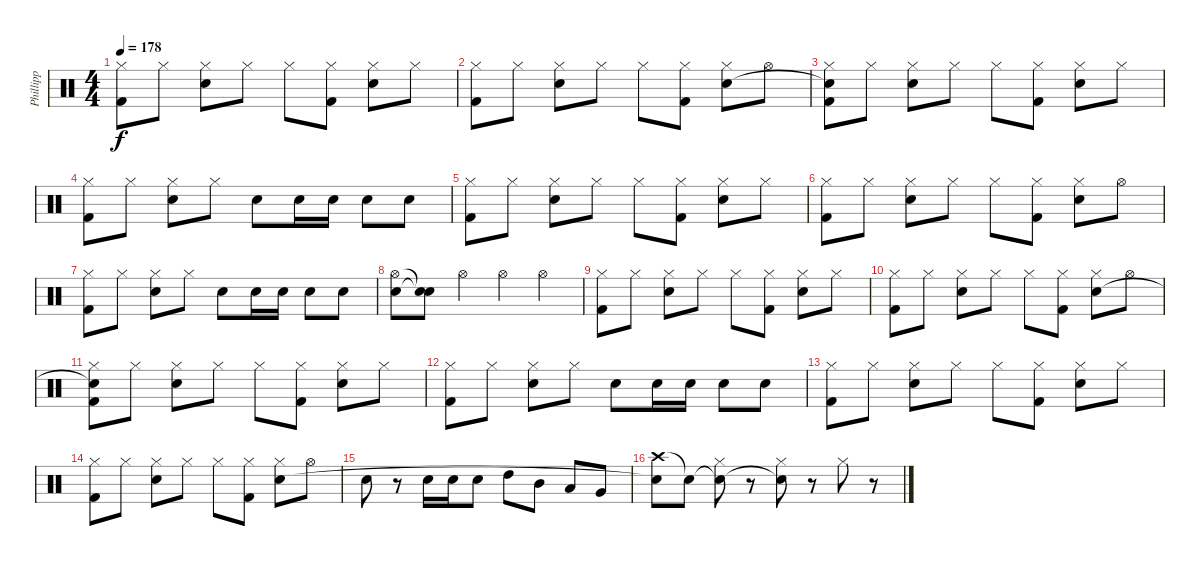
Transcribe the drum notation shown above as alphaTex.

\track ("Phillipp" "Phillipp") {instrument percussion}
\staff {score}
\articulation defaults
\ts (4 4)
\tempo 178
\clef neutral
\ks c
("Hi-Hat (closed)" "Kick (hit) 2").8{dy f} "Hi-Hat (closed)".8 ("Hi-Hat (closed)" "Electric Snare (hit)").8 "Hi-Hat (closed)".8 "Hi-Hat (closed)".8 ("Hi-Hat (closed)" "Kick (hit) 2").8 ("Hi-Hat (closed)" "Electric Snare (hit)").8 "Hi-Hat (closed)".8 |
("Hi-Hat (closed)" "Kick (hit) 2").8 "Hi-Hat (closed)".8 ("Hi-Hat (closed)" "Electric Snare (hit)").8 "Hi-Hat (closed)".8 "Hi-Hat (closed)".8 ("Hi-Hat (closed)" "Kick (hit) 2").8 ("Hi-Hat (closed)" "Electric Snare (hit)").8 "Hi-Hat (open)".8 |
("Hi-Hat (closed)" "Snare (hit)"{t} "Kick (hit) 2").8 "Hi-Hat (closed)".8 ("Hi-Hat (closed)" "Electric Snare (hit)").8 "Hi-Hat (closed)".8 "Hi-Hat (closed)".8 ("Hi-Hat (closed)" "Kick (hit) 2").8 ("Hi-Hat (closed)" "Electric Snare (hit)").8 "Hi-Hat (closed)".8 |
("Hi-Hat (closed)" "Kick (hit) 2").8 "Hi-Hat (closed)".8 ("Hi-Hat (closed)" "Electric Snare (hit)").8 "Hi-Hat (closed)".8 "Electric Snare (hit)".8 "Electric Snare (hit)".16 "Electric Snare (hit)".16 "Electric Snare (hit)".8 "Electric Snare (hit)".8 |
("Hi-Hat (closed)" "Kick (hit) 2").8 "Hi-Hat (closed)".8 ("Hi-Hat (closed)" "Electric Snare (hit)").8 "Hi-Hat (closed)".8 "Hi-Hat (closed)".8 ("Hi-Hat (closed)" "Kick (hit) 2").8 ("Hi-Hat (closed)" "Electric Snare (hit)").8 "Hi-Hat (closed)".8 |
("Hi-Hat (closed)" "Kick (hit) 2").8 "Hi-Hat (closed)".8 ("Hi-Hat (closed)" "Electric Snare (hit)").8 "Hi-Hat (closed)".8 "Hi-Hat (closed)".8 ("Hi-Hat (closed)" "Kick (hit) 2").8 ("Hi-Hat (closed)" "Electric Snare (hit)").8 "Hi-Hat (open)".8 |
("Hi-Hat (closed)" "Kick (hit) 2").8 "Hi-Hat (closed)".8 ("Hi-Hat (closed)" "Electric Snare (hit)").8 "Hi-Hat (closed)".8 "Electric Snare (hit)".8 "Electric Snare (hit)".16 "Electric Snare (hit)".16 "Electric Snare (hit)".8 "Electric Snare (hit)".8 |
("Electric Snare (hit)" "Hi-Hat (open)").8 ("Snare (hit)"{t} "Snare (hit)"{t}).8 "Hi-Hat (open)".4 "Hi-Hat (open)".4 "Hi-Hat (open)".4 |
("Hi-Hat (closed)" "Kick (hit) 2").8 "Hi-Hat (closed)".8 ("Hi-Hat (closed)" "Electric Snare (hit)").8 "Hi-Hat (closed)".8 "Hi-Hat (closed)".8 ("Hi-Hat (closed)" "Kick (hit) 2").8 ("Hi-Hat (closed)" "Electric Snare (hit)").8 "Hi-Hat (closed)".8 |
("Hi-Hat (closed)" "Kick (hit) 2").8 "Hi-Hat (closed)".8 ("Hi-Hat (closed)" "Electric Snare (hit)").8 "Hi-Hat (closed)".8 "Hi-Hat (closed)".8 ("Hi-Hat (closed)" "Kick (hit) 2").8 ("Hi-Hat (closed)" "Electric Snare (hit)").8 "Hi-Hat (open)".8 |
("Hi-Hat (closed)" "Snare (hit)"{t} "Kick (hit) 2").8 "Hi-Hat (closed)".8 ("Hi-Hat (closed)" "Electric Snare (hit)").8 "Hi-Hat (closed)".8 "Hi-Hat (closed)".8 ("Hi-Hat (closed)" "Kick (hit) 2").8 ("Hi-Hat (closed)" "Electric Snare (hit)").8 "Hi-Hat (closed)".8 |
("Hi-Hat (closed)" "Kick (hit) 2").8 "Hi-Hat (closed)".8 ("Hi-Hat (closed)" "Electric Snare (hit)").8 "Hi-Hat (closed)".8 "Electric Snare (hit)".8 "Electric Snare (hit)".16 "Electric Snare (hit)".16 "Electric Snare (hit)".8 "Electric Snare (hit)".8 |
("Hi-Hat (closed)" "Kick (hit) 2").8 "Hi-Hat (closed)".8 ("Hi-Hat (closed)" "Electric Snare (hit)").8 "Hi-Hat (closed)".8 "Hi-Hat (closed)".8 ("Hi-Hat (closed)" "Kick (hit) 2").8 ("Hi-Hat (closed)" "Electric Snare (hit)").8 "Hi-Hat (closed)".8 |
("Hi-Hat (closed)" "Kick (hit) 2").8 "Hi-Hat (closed)".8 ("Hi-Hat (closed)" "Electric Snare (hit)").8 "Hi-Hat (closed)".8 "Hi-Hat (closed)".8 ("Hi-Hat (closed)" "Kick (hit) 2").8 ("Hi-Hat (closed)" "Electric Snare (hit)").8 "Hi-Hat (open)".8 |
"Electric Snare (hit)".8 r.8 "Electric Snare (hit)".16 "Electric Snare (hit)".16 "Electric Snare (hit)".8 "High Tom (hit)".8 "Mid Tom (hit)".8 "Low Tom (hit)".8 "Very Low Tom (hit)".8 |
("Crash high (hit)" "Snare (hit)"{t}).8 "Snare (hit)"{t}.8 ("Snare (hit)"{t} "Hi-Hat (closed)").8 r.8 ("Snare (hit)"{t} "Hi-Hat (closed)").8 r.8 "Hi-Hat (closed)".8 r.8
